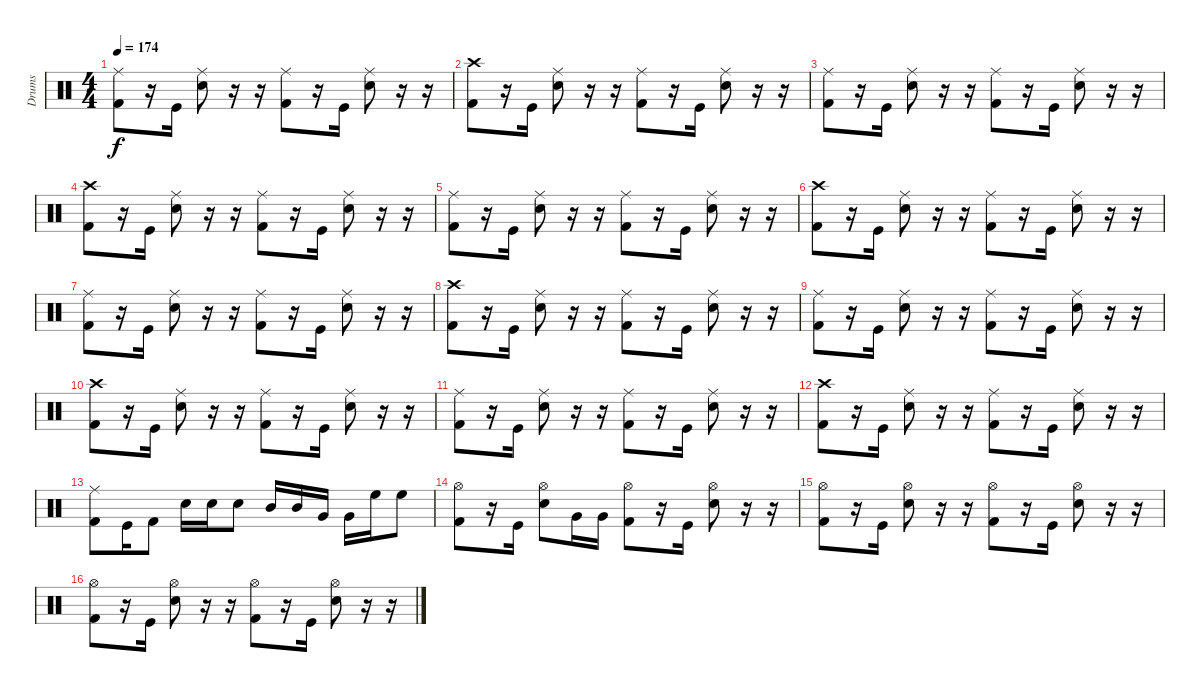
\track ("Drums" "Drums") {instrument percussion}
\staff {score}
\articulation defaults
\ts (4 4)
\tempo 174
\clef neutral
\ks c
("Ride (middle)" "Kick (hit) 2").8{dy f} r.16 "Kick (hit)".16 ("Ride (middle)" "Snare (hit) 2").8 r.16 r.16 ("Ride (middle)" "Kick (hit) 2").8 r.16 "Kick (hit)".16 ("Ride (middle)" "Snare (hit) 2").8 r.16 r.16 |
("Crash high (hit)" "Kick (hit) 2").8 r.16 "Kick (hit)".16 ("Ride (middle)" "Snare (hit) 2").8 r.16 r.16 ("Ride (middle)" "Kick (hit) 2").8 r.16 "Kick (hit)".16 ("Ride (middle)" "Snare (hit) 2").8 r.16 r.16 |
("Ride (middle)" "Kick (hit) 2").8 r.16 "Kick (hit)".16 ("Ride (middle)" "Snare (hit) 2").8 r.16 r.16 ("Ride (middle)" "Kick (hit) 2").8 r.16 "Kick (hit)".16 ("Ride (middle)" "Snare (hit) 2").8 r.16 r.16 |
("Crash high (hit)" "Kick (hit) 2").8 r.16 "Kick (hit)".16 ("Ride (middle)" "Snare (hit) 2").8 r.16 r.16 ("Ride (middle)" "Kick (hit) 2").8 r.16 "Kick (hit)".16 ("Ride (middle)" "Snare (hit) 2").8 r.16 r.16 |
("Ride (middle)" "Kick (hit) 2").8 r.16 "Kick (hit)".16 ("Ride (middle)" "Snare (hit) 2").8 r.16 r.16 ("Ride (middle)" "Kick (hit) 2").8 r.16 "Kick (hit)".16 ("Ride (middle)" "Snare (hit) 2").8 r.16 r.16 |
("Crash high (hit)" "Kick (hit) 2").8 r.16 "Kick (hit)".16 ("Ride (middle)" "Snare (hit) 2").8 r.16 r.16 ("Ride (middle)" "Kick (hit) 2").8 r.16 "Kick (hit)".16 ("Ride (middle)" "Snare (hit) 2").8 r.16 r.16 |
("Ride (middle)" "Kick (hit) 2").8 r.16 "Kick (hit)".16 ("Ride (middle)" "Snare (hit) 2").8 r.16 r.16 ("Ride (middle)" "Kick (hit) 2").8 r.16 "Kick (hit)".16 ("Ride (middle)" "Snare (hit) 2").8 r.16 r.16 |
("Crash high (hit)" "Kick (hit) 2").8 r.16 "Kick (hit)".16 ("Ride (middle)" "Snare (hit) 2").8 r.16 r.16 ("Ride (middle)" "Kick (hit) 2").8 r.16 "Kick (hit)".16 ("Ride (middle)" "Snare (hit) 2").8 r.16 r.16 |
("Ride (middle)" "Kick (hit) 2").8 r.16 "Kick (hit)".16 ("Ride (middle)" "Snare (hit) 2").8 r.16 r.16 ("Ride (middle)" "Kick (hit) 2").8 r.16 "Kick (hit)".16 ("Ride (middle)" "Snare (hit) 2").8 r.16 r.16 |
("Crash high (hit)" "Kick (hit) 2").8 r.16 "Kick (hit)".16 ("Ride (middle)" "Snare (hit) 2").8 r.16 r.16 ("Ride (middle)" "Kick (hit) 2").8 r.16 "Kick (hit)".16 ("Ride (middle)" "Snare (hit) 2").8 r.16 r.16 |
("Ride (middle)" "Kick (hit) 2").8 r.16 "Kick (hit)".16 ("Ride (middle)" "Snare (hit) 2").8 r.16 r.16 ("Ride (middle)" "Kick (hit) 2").8 r.16 "Kick (hit)".16 ("Ride (middle)" "Snare (hit) 2").8 r.16 r.16 |
("Crash high (hit)" "Kick (hit) 2").8 r.16 "Kick (hit)".16 ("Ride (middle)" "Snare (hit) 2").8 r.16 r.16 ("Ride (middle)" "Kick (hit) 2").8 r.16 "Kick (hit)".16 ("Ride (middle)" "Snare (hit) 2").8 r.16 r.16 |
("Ride (middle)" "Kick (hit) 2").8 "Kick (hit)".16 "Kick (hit) 2".8 "Snare (hit) 2".16 "Snare (hit) 2".16 "Snare (hit) 2".8 "Mid Tom (hit)".16 "Mid Tom (hit)".16 "Very Low Tom (hit)".16 "Very Low Tom (hit)".16 "High Floor Tom (hit)".16 "High Floor Tom (hit)".8 |
("Hi-Hat (open)" "Kick (hit) 2").8 r.16 "Kick (hit)".16 ("Hi-Hat (open)" "Snare (hit) 2").8 "Very Low Tom (hit)".16 "Very Low Tom (hit)".16 ("Hi-Hat (open)" "Kick (hit) 2").8 r.16 "Kick (hit)".16 ("Hi-Hat (open)" "Snare (hit) 2").8 r.16 r.16 |
("Hi-Hat (open)" "Kick (hit) 2").8 r.16 "Kick (hit)".16 ("Hi-Hat (open)" "Snare (hit) 2").8 r.16 r.16 ("Hi-Hat (open)" "Kick (hit) 2").8 r.16 "Kick (hit)".16 ("Hi-Hat (open)" "Snare (hit) 2").8 r.16 r.16 |
("Hi-Hat (open)" "Kick (hit) 2").8 r.16 "Kick (hit)".16 ("Hi-Hat (open)" "Snare (hit) 2").8 r.16 r.16 ("Hi-Hat (open)" "Kick (hit) 2").8 r.16 "Kick (hit)".16 ("Hi-Hat (open)" "Snare (hit) 2").8 r.16 r.16
